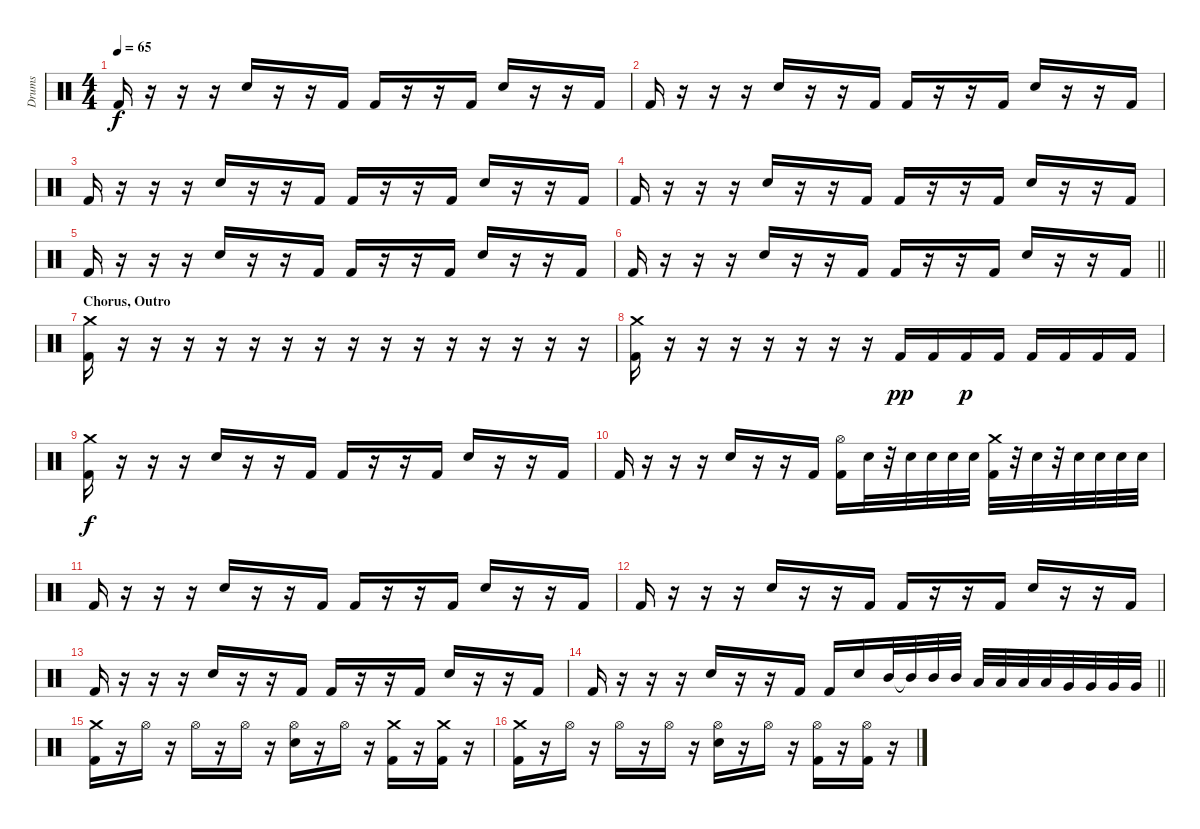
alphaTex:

\track ("Drums" "Drums") {instrument percussion}
\staff {score}
\articulation defaults
\ts (4 4)
\tempo 65
\clef neutral
\ks c "Kick (hit) 2".16{dy f}
r.16 r.16 r.16 "Snare (hit) 2".16 r.16 r.16 "Kick (hit) 2".16 "Kick (hit) 2".16 r.16 r.16 "Kick (hit) 2".16 "Snare (hit) 2".16 r.16 r.16 "Kick (hit) 2".16 |
"Kick (hit) 2".16 r.16 r.16 r.16 "Snare (hit) 2".16 r.16 r.16 "Kick (hit) 2".16 "Kick (hit) 2".16 r.16 r.16 "Kick (hit) 2".16 "Snare (hit) 2".16 r.16 r.16 "Kick (hit) 2".16 |
"Kick (hit) 2".16 r.16 r.16 r.16 "Snare (hit) 2".16 r.16 r.16 "Kick (hit) 2".16 "Kick (hit) 2".16 r.16 r.16 "Kick (hit) 2".16 "Snare (hit) 2".16 r.16 r.16 "Kick (hit) 2".16 |
"Kick (hit) 2".16 r.16 r.16 r.16 "Snare (hit) 2".16 r.16 r.16 "Kick (hit) 2".16 "Kick (hit) 2".16 r.16 r.16 "Kick (hit) 2".16 "Snare (hit) 2".16 r.16 r.16 "Kick (hit) 2".16 |
"Kick (hit) 2".16 r.16 r.16 r.16 "Snare (hit) 2".16 r.16 r.16 "Kick (hit) 2".16 "Kick (hit) 2".16 r.16 r.16 "Kick (hit) 2".16 "Snare (hit) 2".16 r.16 r.16 "Kick (hit) 2".16 |
\barLineRight lightlight "Kick (hit) 2".16
r.16 r.16 r.16 "Snare (hit) 2".16 r.16 r.16 "Kick (hit) 2".16 "Kick (hit) 2".16 r.16 r.16 "Kick (hit) 2".16 "Snare (hit) 2".16 r.16 r.16 "Kick (hit) 2".16 |
\section ("" "Chorus, Outro")
("Kick (hit) 2" "Crash medium (hit)").16 r.16 r.16 r.16 r.16 r.16 r.16 r.16 r.16 r.16 r.16 r.16 r.16 r.16 r.16 r.16 |
("Kick (hit) 2" "Crash medium (hit)").16 r.16 r.16 r.16 r.16 r.16 r.16 r.16 "Kick (hit) 2".16{dy pp} "Kick (hit) 2".16 "Kick (hit) 2".16{dy p} "Kick (hit) 2".16 "Kick (hit) 2".16 "Kick (hit) 2".16 "Kick (hit) 2".16 "Kick (hit) 2".16 |
("Kick (hit) 2" "Crash medium (hit)").16{dy f} r.16 r.16 r.16 "Snare (hit) 2".16 r.16 r.16 "Kick (hit) 2".16 "Kick (hit) 2".16 r.16 r.16 "Kick (hit) 2".16 "Snare (hit) 2".16 r.16 r.16 "Kick (hit) 2".16 |
"Kick (hit) 2".16 r.16 r.16 r.16 "Snare (hit) 2".16 r.16 r.16 "Kick (hit) 2".16 ("Kick (hit) 2" "Hi-Hat (open)").16 "Snare (hit) 2".32 r.32 "Snare (hit) 2".32 "Snare (hit) 2".32 "Snare (hit) 2".32 "Snare (hit) 2".32 ("Kick (hit) 2" "Crash medium (hit)").32 r.32 "Snare (hit) 2".32 r.32 "Snare (hit) 2".32 "Snare (hit) 2".32 "Snare (hit) 2".32 "Snare (hit) 2".32 |
"Kick (hit) 2".16 r.16 r.16 r.16 "Snare (hit) 2".16 r.16 r.16 "Kick (hit) 2".16 "Kick (hit) 2".16 r.16 r.16 "Kick (hit) 2".16 "Snare (hit) 2".16 r.16 r.16 "Kick (hit) 2".16 |
"Kick (hit) 2".16 r.16 r.16 r.16 "Snare (hit) 2".16 r.16 r.16 "Kick (hit) 2".16 "Kick (hit) 2".16 r.16 r.16 "Kick (hit) 2".16 "Snare (hit) 2".16 r.16 r.16 "Kick (hit) 2".16 |
"Kick (hit) 2".16 r.16 r.16 r.16 "Snare (hit) 2".16 r.16 r.16 "Kick (hit) 2".16 "Kick (hit) 2".16 r.16 r.16 "Kick (hit) 2".16 "Snare (hit) 2".16 r.16 r.16 "Kick (hit) 2".16 |
\barLineRight lightlight "Kick (hit) 2".16
r.16 r.16 r.16 "Snare (hit) 2".16 r.16 r.16 "Kick (hit) 2".16 "Kick (hit) 2".16 "Snare (hit) 2".16 "Mid Tom (hit)".32 "Mid Tom (hit)"{t}.32 "Mid Tom (hit)".32 "Mid Tom (hit)".32 "Low Tom (hit)".32 "Low Tom (hit)".32 "Low Tom (hit)".32 "Low Tom (hit)".32 "Very Low Tom (hit)".32 "Very Low Tom (hit)".32 "Very Low Tom (hit)".32 "Very Low Tom (hit)".32 |
("Kick (hit) 2" "Crash medium (hit)").16 r.16 "Hi-Hat (open)".16 r.16 "Hi-Hat (open)".16 r.16 "Hi-Hat (open)".16 r.16 ("Hi-Hat (open)" "Snare (hit) 2").16 r.16 "Hi-Hat (open)".16 r.16 ("Crash medium (hit)" "Kick (hit) 2").16 r.16 ("Crash medium (hit)" "Kick (hit) 2").16 r.16 |
("Kick (hit) 2" "Crash medium (hit)").16 r.16 "Hi-Hat (open)".16 r.16 "Hi-Hat (open)".16 r.16 "Hi-Hat (open)".16 r.16 ("Hi-Hat (open)" "Snare (hit) 2").16 r.16 "Hi-Hat (open)".16 r.16 ("Kick (hit) 2" "Hi-Hat (open)").16 r.16 ("Kick (hit) 2" "Hi-Hat (open)").16 r.16
